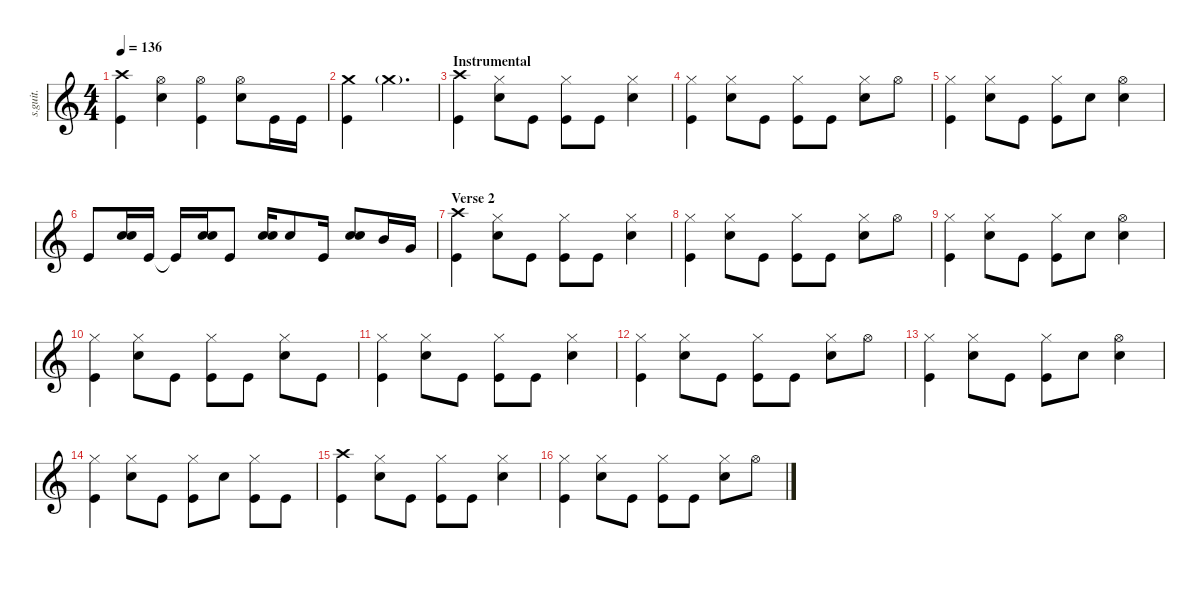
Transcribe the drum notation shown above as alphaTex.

\defaultSystemsLayout 4
\hideDynamics
\bracketExtendMode nobrackets
\track ("Ilan Rubin" "s.guit.") {instrument percussion}
\staff {score}
\articulation defaults
\ts (4 4)
\tempo 136
\clef g2
\ks c
("Crash high (hit)" "Kick (hit)").4{lyrics (0 "") lyrics (1 "") lyrics (2 "") lyrics (3 "") lyrics (4 "") dy ff} ("Hi-Hat (open)" "Electric Snare (hit)").4{lyrics (0 "") lyrics (1 "") lyrics (2 "") lyrics (3 "") lyrics (4 "") dy f} ("Hi-Hat (open)" "Kick (hit)").4{lyrics (0 "") lyrics (1 "") lyrics (2 "") lyrics (3 "") lyrics (4 "")} ("Hi-Hat (open)" "Electric Snare (hit)").8{lyrics (0 "") lyrics (1 "") lyrics (2 "") lyrics (3 "") lyrics (4 "")} "Kick (hit)".16{lyrics (0 "") lyrics (1 "") lyrics (2 "") lyrics (3 "") lyrics (4 "") dy ff} "Kick (hit)".16{lyrics (0 "") lyrics (1 "") lyrics (2 "") lyrics (3 "") lyrics (4 "")} |
("Crash medium (hit)" "Kick (hit)").4{lyrics (0 "") lyrics (1 "") lyrics (2 "") lyrics (3 "") lyrics (4 "")} "Crash medium (hit)"{g x}.2{d lyrics (0 "") lyrics (1 "") lyrics (2 "") lyrics (3 "") lyrics (4 "") dy ppp} |
\section ("" "Instrumental")
("Crash high (hit)" "Kick (hit)").4{lyrics (0 "") lyrics (1 "") lyrics (2 "") lyrics (3 "") lyrics (4 "") dy f} ("Hi-Hat (closed)" "Electric Snare (hit)").8{lyrics (0 "") lyrics (1 "") lyrics (2 "") lyrics (3 "") lyrics (4 "")} "Kick (hit)".8{lyrics (0 "") lyrics (1 "") lyrics (2 "") lyrics (3 "") lyrics (4 "") dy ff} ("Hi-Hat (closed)" "Kick (hit)").8{lyrics (0 "") lyrics (1 "") lyrics (2 "") lyrics (3 "") lyrics (4 "")} "Kick (hit)".8{lyrics (0 "") lyrics (1 "") lyrics (2 "") lyrics (3 "") lyrics (4 "")} ("Hi-Hat (closed)" "Electric Snare (hit)").4{lyrics (0 "") lyrics (1 "") lyrics (2 "") lyrics (3 "") lyrics (4 "") dy f} |
("Hi-Hat (closed)" "Kick (hit)").4{lyrics (0 "") lyrics (1 "") lyrics (2 "") lyrics (3 "") lyrics (4 "")} ("Hi-Hat (closed)" "Electric Snare (hit)").8{lyrics (0 "") lyrics (1 "") lyrics (2 "") lyrics (3 "") lyrics (4 "")} "Kick (hit)".8{lyrics (0 "") lyrics (1 "") lyrics (2 "") lyrics (3 "") lyrics (4 "") dy ff} ("Hi-Hat (closed)" "Kick (hit)").8{lyrics (0 "") lyrics (1 "") lyrics (2 "") lyrics (3 "") lyrics (4 "")} "Kick (hit)".8{lyrics (0 "") lyrics (1 "") lyrics (2 "") lyrics (3 "") lyrics (4 "")} ("Hi-Hat (closed)" "Electric Snare (hit)").8{lyrics (0 "") lyrics (1 "") lyrics (2 "") lyrics (3 "") lyrics (4 "") dy f} "Hi-Hat (open)".8{lyrics (0 "") lyrics (1 "") lyrics (2 "") lyrics (3 "") lyrics (4 "")} |
("Hi-Hat (closed)" "Kick (hit)").4{lyrics (0 "") lyrics (1 "") lyrics (2 "") lyrics (3 "") lyrics (4 "")} ("Hi-Hat (closed)" "Electric Snare (hit)").8{lyrics (0 "") lyrics (1 "") lyrics (2 "") lyrics (3 "") lyrics (4 "")} "Kick (hit)".8{lyrics (0 "") lyrics (1 "") lyrics (2 "") lyrics (3 "") lyrics (4 "") dy ff} ("Hi-Hat (closed)" "Kick (hit)").8{lyrics (0 "") lyrics (1 "") lyrics (2 "") lyrics (3 "") lyrics (4 "")} "Electric Snare (hit)".8{lyrics (0 "") lyrics (1 "") lyrics (2 "") lyrics (3 "") lyrics (4 "") dy f} ("Hi-Hat (open)" "Electric Snare (hit)").4{lyrics (0 "") lyrics (1 "") lyrics (2 "") lyrics (3 "") lyrics (4 "")} |
"Kick (hit)".8{lyrics (0 "") lyrics (1 "") lyrics (2 "") lyrics (3 "") lyrics (4 "") dy ff} ("Electric Snare (hit)" "Electric Snare (hit)").16{bd 30 lyrics (0 "") lyrics (1 "") lyrics (2 "") lyrics (3 "") lyrics (4 "") dy f} "Kick (hit)".16{lyrics (0 "") lyrics (1 "") lyrics (2 "") lyrics (3 "") lyrics (4 "") dy ff} "Kick (hit)"{t}.16{lyrics (0 "") lyrics (1 "") lyrics (2 "") lyrics (3 "") lyrics (4 "")} ("Electric Snare (hit)" "Electric Snare (hit)").16{bd 30 lyrics (0 "") lyrics (1 "") lyrics (2 "") lyrics (3 "") lyrics (4 "") dy f} "Kick (hit)".8{lyrics (0 "") lyrics (1 "") lyrics (2 "") lyrics (3 "") lyrics (4 "") dy ff} ("Electric Snare (hit)" "Electric Snare (hit)").16{bd 30 lyrics (0 "") lyrics (1 "") lyrics (2 "") lyrics (3 "") lyrics (4 "") dy f} "Electric Snare (hit)".8{lyrics (0 "") lyrics (1 "") lyrics (2 "") lyrics (3 "") lyrics (4 "")} "Kick (hit)".16{lyrics (0 "") lyrics (1 "") lyrics (2 "") lyrics (3 "") lyrics (4 "") dy ff} ("Electric Snare (hit)" "Electric Snare (hit)").8{bd 30 lyrics (0 "") lyrics (1 "") lyrics (2 "") lyrics (3 "") lyrics (4 "") dy f} "Mid Tom (hit)".16{lyrics (0 "") lyrics (1 "") lyrics (2 "") lyrics (3 "") lyrics (4 "")} "Very Low Tom (hit)".16{lyrics (0 "") lyrics (1 "") lyrics (2 "") lyrics (3 "") lyrics (4 "")} |
\section ("" "Verse 2")
("Crash high (hit)" "Kick (hit)").4{lyrics (0 "") lyrics (1 "") lyrics (2 "") lyrics (3 "") lyrics (4 "")} ("Hi-Hat (closed)" "Electric Snare (hit)").8{lyrics (0 "") lyrics (1 "") lyrics (2 "") lyrics (3 "") lyrics (4 "")} "Kick (hit)".8{lyrics (0 "") lyrics (1 "") lyrics (2 "") lyrics (3 "") lyrics (4 "") dy ff} ("Hi-Hat (closed)" "Kick (hit)").8{lyrics (0 "") lyrics (1 "") lyrics (2 "") lyrics (3 "") lyrics (4 "")} "Kick (hit)".8{lyrics (0 "") lyrics (1 "") lyrics (2 "") lyrics (3 "") lyrics (4 "")} ("Hi-Hat (closed)" "Electric Snare (hit)").4{lyrics (0 "") lyrics (1 "") lyrics (2 "") lyrics (3 "") lyrics (4 "") dy f} |
("Hi-Hat (closed)" "Kick (hit)").4{lyrics (0 "") lyrics (1 "") lyrics (2 "") lyrics (3 "") lyrics (4 "")} ("Hi-Hat (closed)" "Electric Snare (hit)").8{lyrics (0 "") lyrics (1 "") lyrics (2 "") lyrics (3 "") lyrics (4 "")} "Kick (hit)".8{lyrics (0 "") lyrics (1 "") lyrics (2 "") lyrics (3 "") lyrics (4 "") dy ff} ("Hi-Hat (closed)" "Kick (hit)").8{lyrics (0 "") lyrics (1 "") lyrics (2 "") lyrics (3 "") lyrics (4 "")} "Kick (hit)".8{lyrics (0 "") lyrics (1 "") lyrics (2 "") lyrics (3 "") lyrics (4 "")} ("Hi-Hat (closed)" "Electric Snare (hit)").8{lyrics (0 "") lyrics (1 "") lyrics (2 "") lyrics (3 "") lyrics (4 "") dy f} "Hi-Hat (open)".8{lyrics (0 "") lyrics (1 "") lyrics (2 "") lyrics (3 "") lyrics (4 "")} |
("Hi-Hat (closed)" "Kick (hit)").4{lyrics (0 "") lyrics (1 "") lyrics (2 "") lyrics (3 "") lyrics (4 "")} ("Hi-Hat (closed)" "Electric Snare (hit)").8{lyrics (0 "") lyrics (1 "") lyrics (2 "") lyrics (3 "") lyrics (4 "")} "Kick (hit)".8{lyrics (0 "") lyrics (1 "") lyrics (2 "") lyrics (3 "") lyrics (4 "") dy ff} ("Hi-Hat (closed)" "Kick (hit)").8{lyrics (0 "") lyrics (1 "") lyrics (2 "") lyrics (3 "") lyrics (4 "")} "Electric Snare (hit)".8{lyrics (0 "") lyrics (1 "") lyrics (2 "") lyrics (3 "") lyrics (4 "") dy f} ("Hi-Hat (open)" "Electric Snare (hit)").4{lyrics (0 "") lyrics (1 "") lyrics (2 "") lyrics (3 "") lyrics (4 "")} |
("Hi-Hat (closed)" "Kick (hit)").4{lyrics (0 "") lyrics (1 "") lyrics (2 "") lyrics (3 "") lyrics (4 "")} ("Hi-Hat (closed)" "Electric Snare (hit)").8{lyrics (0 "") lyrics (1 "") lyrics (2 "") lyrics (3 "") lyrics (4 "")} "Kick (hit)".8{lyrics (0 "") lyrics (1 "") lyrics (2 "") lyrics (3 "") lyrics (4 "") dy ff} ("Hi-Hat (closed)" "Kick (hit)").8{lyrics (0 "") lyrics (1 "") lyrics (2 "") lyrics (3 "") lyrics (4 "")} "Kick (hit)".8{lyrics (0 "") lyrics (1 "") lyrics (2 "") lyrics (3 "") lyrics (4 "")} ("Hi-Hat (closed)" "Electric Snare (hit)").8{lyrics (0 "") lyrics (1 "") lyrics (2 "") lyrics (3 "") lyrics (4 "") dy f} "Kick (hit)".8{lyrics (0 "") lyrics (1 "") lyrics (2 "") lyrics (3 "") lyrics (4 "") dy ff} |
("Hi-Hat (closed)" "Kick (hit)").4{lyrics (0 "") lyrics (1 "") lyrics (2 "") lyrics (3 "") lyrics (4 "")} ("Hi-Hat (closed)" "Electric Snare (hit)").8{lyrics (0 "") lyrics (1 "") lyrics (2 "") lyrics (3 "") lyrics (4 "") dy f} "Kick (hit)".8{lyrics (0 "") lyrics (1 "") lyrics (2 "") lyrics (3 "") lyrics (4 "") dy ff} ("Hi-Hat (closed)" "Kick (hit)").8{lyrics (0 "") lyrics (1 "") lyrics (2 "") lyrics (3 "") lyrics (4 "")} "Kick (hit)".8{lyrics (0 "") lyrics (1 "") lyrics (2 "") lyrics (3 "") lyrics (4 "")} ("Hi-Hat (closed)" "Electric Snare (hit)").4{lyrics (0 "") lyrics (1 "") lyrics (2 "") lyrics (3 "") lyrics (4 "") dy f} |
("Hi-Hat (closed)" "Kick (hit)").4{lyrics (0 "") lyrics (1 "") lyrics (2 "") lyrics (3 "") lyrics (4 "")} ("Hi-Hat (closed)" "Electric Snare (hit)").8{lyrics (0 "") lyrics (1 "") lyrics (2 "") lyrics (3 "") lyrics (4 "")} "Kick (hit)".8{lyrics (0 "") lyrics (1 "") lyrics (2 "") lyrics (3 "") lyrics (4 "") dy ff} ("Hi-Hat (closed)" "Kick (hit)").8{lyrics (0 "") lyrics (1 "") lyrics (2 "") lyrics (3 "") lyrics (4 "")} "Kick (hit)".8{lyrics (0 "") lyrics (1 "") lyrics (2 "") lyrics (3 "") lyrics (4 "")} ("Hi-Hat (closed)" "Electric Snare (hit)").8{lyrics (0 "") lyrics (1 "") lyrics (2 "") lyrics (3 "") lyrics (4 "") dy f} "Hi-Hat (open)".8{lyrics (0 "") lyrics (1 "") lyrics (2 "") lyrics (3 "") lyrics (4 "")} |
("Hi-Hat (closed)" "Kick (hit)").4{lyrics (0 "") lyrics (1 "") lyrics (2 "") lyrics (3 "") lyrics (4 "")} ("Hi-Hat (closed)" "Electric Snare (hit)").8{lyrics (0 "") lyrics (1 "") lyrics (2 "") lyrics (3 "") lyrics (4 "")} "Kick (hit)".8{lyrics (0 "") lyrics (1 "") lyrics (2 "") lyrics (3 "") lyrics (4 "") dy ff} ("Hi-Hat (closed)" "Kick (hit)").8{lyrics (0 "") lyrics (1 "") lyrics (2 "") lyrics (3 "") lyrics (4 "")} "Electric Snare (hit)".8{lyrics (0 "") lyrics (1 "") lyrics (2 "") lyrics (3 "") lyrics (4 "") dy f} ("Hi-Hat (open)" "Electric Snare (hit)").4{lyrics (0 "") lyrics (1 "") lyrics (2 "") lyrics (3 "") lyrics (4 "")} |
("Hi-Hat (closed)" "Kick (hit)").4{lyrics (0 "") lyrics (1 "") lyrics (2 "") lyrics (3 "") lyrics (4 "")} ("Hi-Hat (closed)" "Electric Snare (hit)").8{lyrics (0 "") lyrics (1 "") lyrics (2 "") lyrics (3 "") lyrics (4 "")} "Kick (hit)".8{lyrics (0 "") lyrics (1 "") lyrics (2 "") lyrics (3 "") lyrics (4 "") dy ff} ("Hi-Hat (closed)" "Kick (hit)").8{lyrics (0 "") lyrics (1 "") lyrics (2 "") lyrics (3 "") lyrics (4 "")} "Electric Snare (hit)".8{lyrics (0 "") lyrics (1 "") lyrics (2 "") lyrics (3 "") lyrics (4 "") dy f} ("Hi-Hat (closed)" "Kick (hit)").8{lyrics (0 "") lyrics (1 "") lyrics (2 "") lyrics (3 "") lyrics (4 "")} "Kick (hit)".8{lyrics (0 "") lyrics (1 "") lyrics (2 "") lyrics (3 "") lyrics (4 "") dy ff} |
("Crash high (hit)" "Kick (hit)").4{lyrics (0 "") lyrics (1 "") lyrics (2 "") lyrics (3 "") lyrics (4 "")} ("Hi-Hat (closed)" "Electric Snare (hit)").8{lyrics (0 "") lyrics (1 "") lyrics (2 "") lyrics (3 "") lyrics (4 "") dy f} "Kick (hit)".8{lyrics (0 "") lyrics (1 "") lyrics (2 "") lyrics (3 "") lyrics (4 "") dy ff} ("Hi-Hat (closed)" "Kick (hit)").8{lyrics (0 "") lyrics (1 "") lyrics (2 "") lyrics (3 "") lyrics (4 "")} "Kick (hit)".8{lyrics (0 "") lyrics (1 "") lyrics (2 "") lyrics (3 "") lyrics (4 "")} ("Hi-Hat (closed)" "Electric Snare (hit)").4{lyrics (0 "") lyrics (1 "") lyrics (2 "") lyrics (3 "") lyrics (4 "") dy f} |
("Hi-Hat (closed)" "Kick (hit)").4{lyrics (0 "") lyrics (1 "") lyrics (2 "") lyrics (3 "") lyrics (4 "")} ("Hi-Hat (closed)" "Electric Snare (hit)").8{lyrics (0 "") lyrics (1 "") lyrics (2 "") lyrics (3 "") lyrics (4 "")} "Kick (hit)".8{lyrics (0 "") lyrics (1 "") lyrics (2 "") lyrics (3 "") lyrics (4 "") dy ff} ("Hi-Hat (closed)" "Kick (hit)").8{lyrics (0 "") lyrics (1 "") lyrics (2 "") lyrics (3 "") lyrics (4 "")} "Kick (hit)".8{lyrics (0 "") lyrics (1 "") lyrics (2 "") lyrics (3 "") lyrics (4 "")} ("Hi-Hat (closed)" "Electric Snare (hit)").8{lyrics (0 "") lyrics (1 "") lyrics (2 "") lyrics (3 "") lyrics (4 "") dy f} "Hi-Hat (open)".8{lyrics (0 "") lyrics (1 "") lyrics (2 "") lyrics (3 "") lyrics (4 "")}
